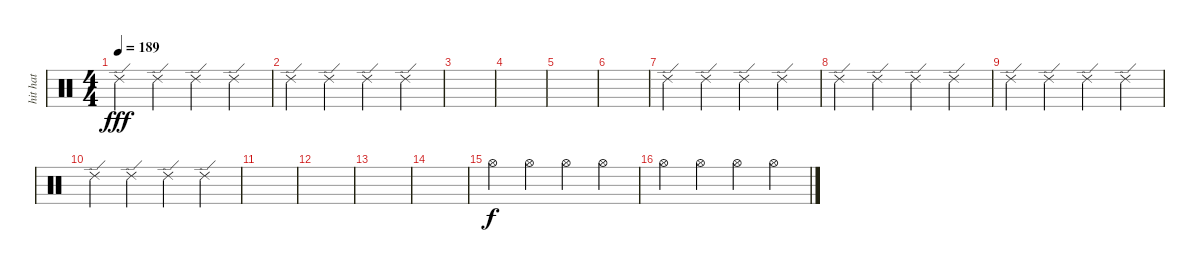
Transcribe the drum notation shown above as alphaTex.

\track ("hit hat" "hit hat") {instrument percussion}
\staff {score}
\articulation defaults
\ts (4 4)
\tempo 189
\clef neutral
\ks c "Ride (edge) 2".4{dy fff} "Ride (edge) 2".4 "Ride (edge) 2".4 "Ride (edge) 2".4
|
"Ride (edge) 2".4 "Ride (edge) 2".4 "Ride (edge) 2".4 "Ride (edge) 2".4 |
|
|
|
|
"Ride (edge) 2".4 "Ride (edge) 2".4 "Ride (edge) 2".4 "Ride (edge) 2".4 |
"Ride (edge) 2".4 "Ride (edge) 2".4 "Ride (edge) 2".4 "Ride (edge) 2".4 |
"Ride (edge) 2".4 "Ride (edge) 2".4 "Ride (edge) 2".4 "Ride (edge) 2".4 |
"Ride (edge) 2".4 "Ride (edge) 2".4 "Ride (edge) 2".4 "Ride (edge) 2".4 |
|
|
|
|
"Hi-Hat (open)".4{dy f} "Hi-Hat (open)".4 "Hi-Hat (open)".4 "Hi-Hat (open)".4 |
"Hi-Hat (open)".4 "Hi-Hat (open)".4 "Hi-Hat (open)".4 "Hi-Hat (open)".4
